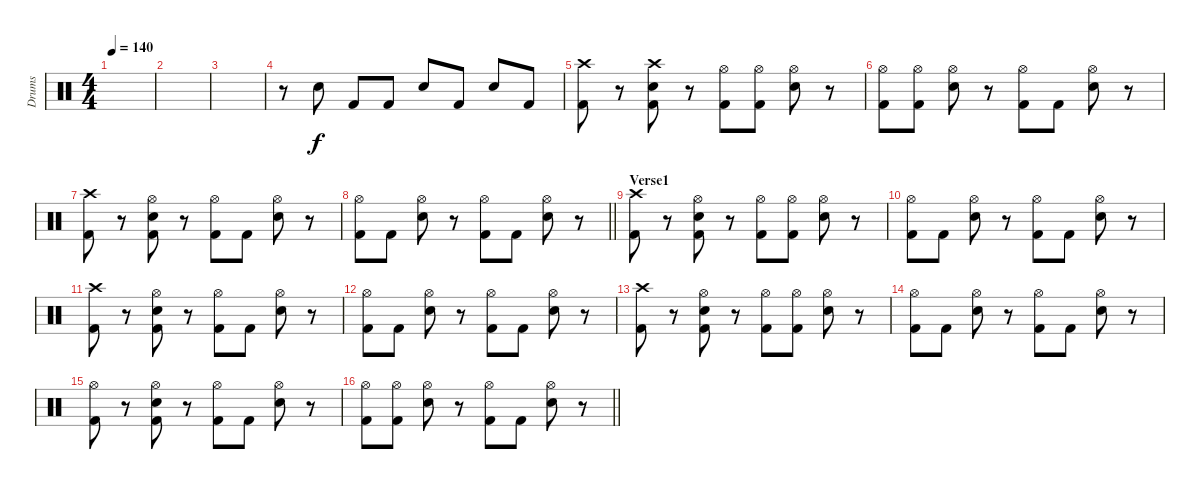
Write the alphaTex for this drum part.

\track ("Drums" "Drums") {instrument percussion}
\staff {score}
\articulation defaults
\ts (4 4)
\tempo 140
\clef neutral
\ks c
|
|
|
r.8 "Snare (hit) 2".8 "Kick (hit) 2".8 "Kick (hit) 2".8 "Snare (hit) 2".8 "Kick (hit) 2".8 "Snare (hit) 2".8 "Kick (hit) 2".8 |
("Crash high (hit)" "Kick (hit) 2").8 r.8 ("Crash high (hit)" "Snare (hit) 2" "Kick (hit) 2").8 r.8 ("Hi-Hat (open)" "Kick (hit) 2").8 ("Hi-Hat (open)" "Kick (hit) 2").8 ("Hi-Hat (open)" "Snare (hit) 2").8 r.8 |
("Hi-Hat (open)" "Kick (hit) 2").8 ("Hi-Hat (open)" "Kick (hit) 2").8 ("Hi-Hat (open)" "Snare (hit) 2").8 r.8 ("Hi-Hat (open)" "Kick (hit) 2").8 "Kick (hit) 2".8 ("Hi-Hat (open)" "Snare (hit) 2").8 r.8 |
("Crash high (hit)" "Kick (hit) 2").8 r.8 ("Hi-Hat (open)" "Snare (hit) 2" "Kick (hit) 2").8 r.8 ("Hi-Hat (open)" "Kick (hit) 2").8 "Kick (hit) 2".8 ("Hi-Hat (open)" "Snare (hit) 2").8 r.8 |
\barLineRight lightlight
("Hi-Hat (open)" "Kick (hit) 2").8 "Kick (hit) 2".8 ("Hi-Hat (open)" "Snare (hit) 2").8 r.8 ("Hi-Hat (open)" "Kick (hit) 2").8 "Kick (hit) 2".8 ("Hi-Hat (open)" "Snare (hit) 2").8 r.8 |
\section ("" "Verse1")
("Crash high (hit)" "Kick (hit) 2").8 r.8 ("Hi-Hat (open)" "Snare (hit) 2" "Kick (hit) 2").8 r.8 ("Hi-Hat (open)" "Kick (hit) 2").8 ("Hi-Hat (open)" "Kick (hit) 2").8 ("Hi-Hat (open)" "Snare (hit) 2").8 r.8 |
("Hi-Hat (open)" "Kick (hit) 2").8 "Kick (hit) 2".8 ("Hi-Hat (open)" "Snare (hit) 2").8 r.8 ("Hi-Hat (open)" "Kick (hit) 2").8 "Kick (hit) 2".8 ("Hi-Hat (open)" "Snare (hit) 2").8 r.8 |
("Crash high (hit)" "Kick (hit) 2").8 r.8 ("Hi-Hat (open)" "Snare (hit) 2" "Kick (hit) 2").8 r.8 ("Hi-Hat (open)" "Kick (hit) 2").8 "Kick (hit) 2".8 ("Hi-Hat (open)" "Snare (hit) 2").8 r.8 |
("Hi-Hat (open)" "Kick (hit) 2").8 "Kick (hit) 2".8 ("Hi-Hat (open)" "Snare (hit) 2").8 r.8 ("Hi-Hat (open)" "Kick (hit) 2").8 "Kick (hit) 2".8 ("Hi-Hat (open)" "Snare (hit) 2").8 r.8 |
("Crash high (hit)" "Kick (hit) 2").8 r.8 ("Hi-Hat (open)" "Snare (hit) 2" "Kick (hit) 2").8 r.8 ("Hi-Hat (open)" "Kick (hit) 2").8 ("Hi-Hat (open)" "Kick (hit) 2").8 ("Hi-Hat (open)" "Snare (hit) 2").8 r.8 |
("Hi-Hat (open)" "Kick (hit) 2").8 "Kick (hit) 2".8 ("Hi-Hat (open)" "Snare (hit) 2").8 r.8 ("Hi-Hat (open)" "Kick (hit) 2").8 "Kick (hit) 2".8 ("Hi-Hat (open)" "Snare (hit) 2").8 r.8 |
("Hi-Hat (open)" "Kick (hit) 2").8 r.8 ("Hi-Hat (open)" "Snare (hit) 2" "Kick (hit) 2").8 r.8 ("Hi-Hat (open)" "Kick (hit) 2").8 "Kick (hit) 2".8 ("Hi-Hat (open)" "Snare (hit) 2").8 r.8 |
\barLineRight lightlight
("Hi-Hat (open)" "Kick (hit) 2").8 ("Hi-Hat (open)" "Kick (hit) 2").8 ("Hi-Hat (open)" "Snare (hit) 2").8 r.8 ("Hi-Hat (open)" "Kick (hit) 2").8 "Kick (hit) 2".8 ("Hi-Hat (open)" "Snare (hit) 2").8 r.8
